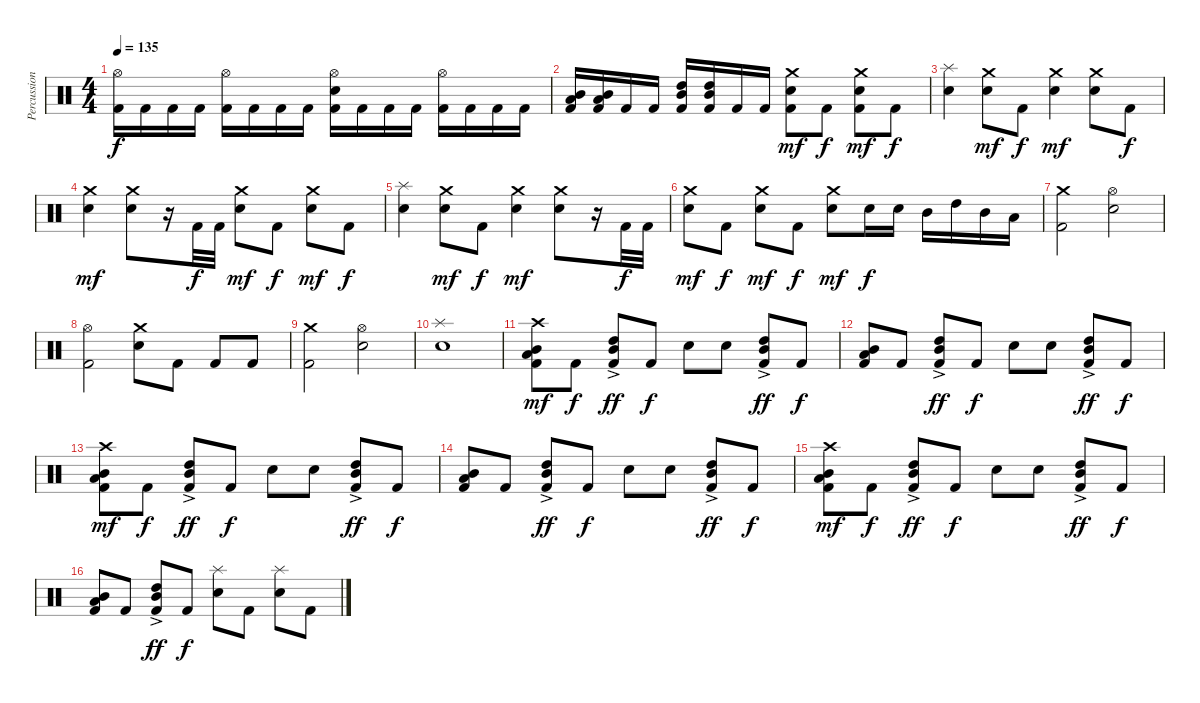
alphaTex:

\track ("Percussion" "Percussion") {instrument percussion}
\staff {score}
\articulation defaults
\ts (4 4)
\tempo 135
\clef neutral
\ks c
("Hi-Hat (open)" "Kick (hit) 2").16{dy f} "Kick (hit) 2".16 "Kick (hit) 2".16 "Kick (hit) 2".16 ("Hi-Hat (open)" "Kick (hit) 2").16 "Kick (hit) 2".16 "Kick (hit) 2".16 "Kick (hit) 2".16 ("Hi-Hat (open)" "Snare (hit) 2" "Kick (hit) 2").16 "Kick (hit) 2".16 "Kick (hit) 2".16 "Kick (hit) 2".16 ("Hi-Hat (open)" "Kick (hit) 2").16 "Kick (hit) 2".16 "Kick (hit) 2".16 "Kick (hit) 2".16 |
("Mid Tom (hit)" "Low Tom (hit)" "Kick (hit) 2").16 ("Mid Tom (hit)" "Low Tom (hit)" "Kick (hit) 2").16 "Kick (hit) 2".16 "Kick (hit) 2".16 ("High Tom (hit)" "Mid Tom (hit)" "Kick (hit) 2").16 ("High Tom (hit)" "Mid Tom (hit)" "Kick (hit) 2").16 "Kick (hit) 2".16 "Kick (hit) 2".16 ("Crash medium (hit)" "Snare (hit) 2" "Kick (hit) 2").8{dy mf} "Kick (hit) 2".8{dy f} ("Crash medium (hit)" "Snare (hit) 2" "Kick (hit) 2").8{dy mf} "Kick (hit) 2".8{dy f} |
("Splash (hit)" "Snare (hit) 2").4 ("Crash medium (hit)" "Snare (hit) 2").8{dy mf} "Kick (hit) 2".8{dy f} ("Crash medium (hit)" "Snare (hit) 2").4{dy mf} ("Crash medium (hit)" "Snare (hit) 2").8 "Kick (hit) 2".8{dy f} |
("Crash medium (hit)" "Snare (hit) 2").4{dy mf} ("Crash medium (hit)" "Snare (hit) 2").8 r.16 "Kick (hit) 2".32{dy f} "Kick (hit) 2".32 ("Crash medium (hit)" "Snare (hit) 2").8{dy mf} "Kick (hit) 2".8{dy f} ("Crash medium (hit)" "Snare (hit) 2").8{dy mf} "Kick (hit) 2".8{dy f} |
("Splash (hit)" "Snare (hit) 2").4 ("Crash medium (hit)" "Snare (hit) 2").8{dy mf} "Kick (hit) 2".8{dy f} ("Crash medium (hit)" "Snare (hit) 2").4{dy mf} ("Crash medium (hit)" "Snare (hit) 2").8 r.16 "Kick (hit) 2".32{dy f} "Kick (hit) 2".32 |
("Crash medium (hit)" "Snare (hit) 2").8{dy mf} "Kick (hit) 2".8{dy f} ("Crash medium (hit)" "Snare (hit) 2").8{dy mf} "Kick (hit) 2".8{dy f} ("Crash medium (hit)" "Snare (hit) 2").8{dy mf} "Snare (hit) 2".16{dy f} "Snare (hit) 2".16 "Mid Tom (hit)".16 "High Tom (hit)".16 "Mid Tom (hit)".16 "Low Tom (hit)".16 |
("Crash medium (hit)" "Kick (hit) 2").2 ("Hi-Hat (open)" "Snare (hit) 2").2 |
("Hi-Hat (open)" "Kick (hit) 2").2 ("Crash medium (hit)" "Snare (hit) 2").8 "Kick (hit) 2".8 "Kick (hit) 2".8 "Kick (hit) 2".8 |
("Crash medium (hit)" "Kick (hit) 2").2 ("Hi-Hat (open)" "Snare (hit) 2").2 |
("Splash (hit)" "Snare (hit) 2").1 |
("Crash high (hit)" "Mid Tom (hit)" "Low Tom (hit)" "Kick (hit) 2").8{dy mf} "Kick (hit) 2".8{dy f} ("High Tom (hit)"{ac} "Mid Tom (hit)"{ac} "Kick (hit) 2").8{dy ff} "Kick (hit) 2".8{dy f} "Snare (hit) 2".8 "Snare (hit) 2".8 ("High Tom (hit)"{ac} "Mid Tom (hit)"{ac} "Kick (hit) 2").8{dy ff} "Kick (hit) 2".8{dy f} |
("Mid Tom (hit)" "Low Tom (hit)" "Kick (hit) 2").8 "Kick (hit) 2".8 ("High Tom (hit)"{ac} "Mid Tom (hit)"{ac} "Kick (hit) 2").8{dy ff} "Kick (hit) 2".8{dy f} "Snare (hit) 2".8 "Snare (hit) 2".8 ("High Tom (hit)"{ac} "Mid Tom (hit)"{ac} "Kick (hit) 2").8{dy ff} "Kick (hit) 2".8{dy f} |
("Crash high (hit)" "Mid Tom (hit)" "Low Tom (hit)" "Kick (hit) 2").8{dy mf} "Kick (hit) 2".8{dy f} ("High Tom (hit)"{ac} "Mid Tom (hit)"{ac} "Kick (hit) 2").8{dy ff} "Kick (hit) 2".8{dy f} "Snare (hit) 2".8 "Snare (hit) 2".8 ("High Tom (hit)"{ac} "Mid Tom (hit)"{ac} "Kick (hit) 2").8{dy ff} "Kick (hit) 2".8{dy f} |
("Mid Tom (hit)" "Low Tom (hit)" "Kick (hit) 2").8 "Kick (hit) 2".8 ("High Tom (hit)"{ac} "Mid Tom (hit)"{ac} "Kick (hit) 2").8{dy ff} "Kick (hit) 2".8{dy f} "Snare (hit) 2".8 "Snare (hit) 2".8 ("High Tom (hit)"{ac} "Mid Tom (hit)"{ac} "Kick (hit) 2").8{dy ff} "Kick (hit) 2".8{dy f} |
("Crash high (hit)" "Mid Tom (hit)" "Low Tom (hit)" "Kick (hit) 2").8{dy mf} "Kick (hit) 2".8{dy f} ("High Tom (hit)"{ac} "Mid Tom (hit)"{ac} "Kick (hit) 2").8{dy ff} "Kick (hit) 2".8{dy f} "Snare (hit) 2".8 "Snare (hit) 2".8 ("High Tom (hit)"{ac} "Mid Tom (hit)"{ac} "Kick (hit) 2").8{dy ff} "Kick (hit) 2".8{dy f} |
("Mid Tom (hit)" "Low Tom (hit)" "Kick (hit) 2").8 "Kick (hit) 2".8 ("High Tom (hit)"{ac} "Mid Tom (hit)"{ac} "Kick (hit) 2").8{dy ff} "Kick (hit) 2".8{dy f} ("Splash (hit)" "Snare (hit) 2").8 "Kick (hit) 2".8 ("Splash (hit)" "Snare (hit) 2").8 "Kick (hit) 2".8
